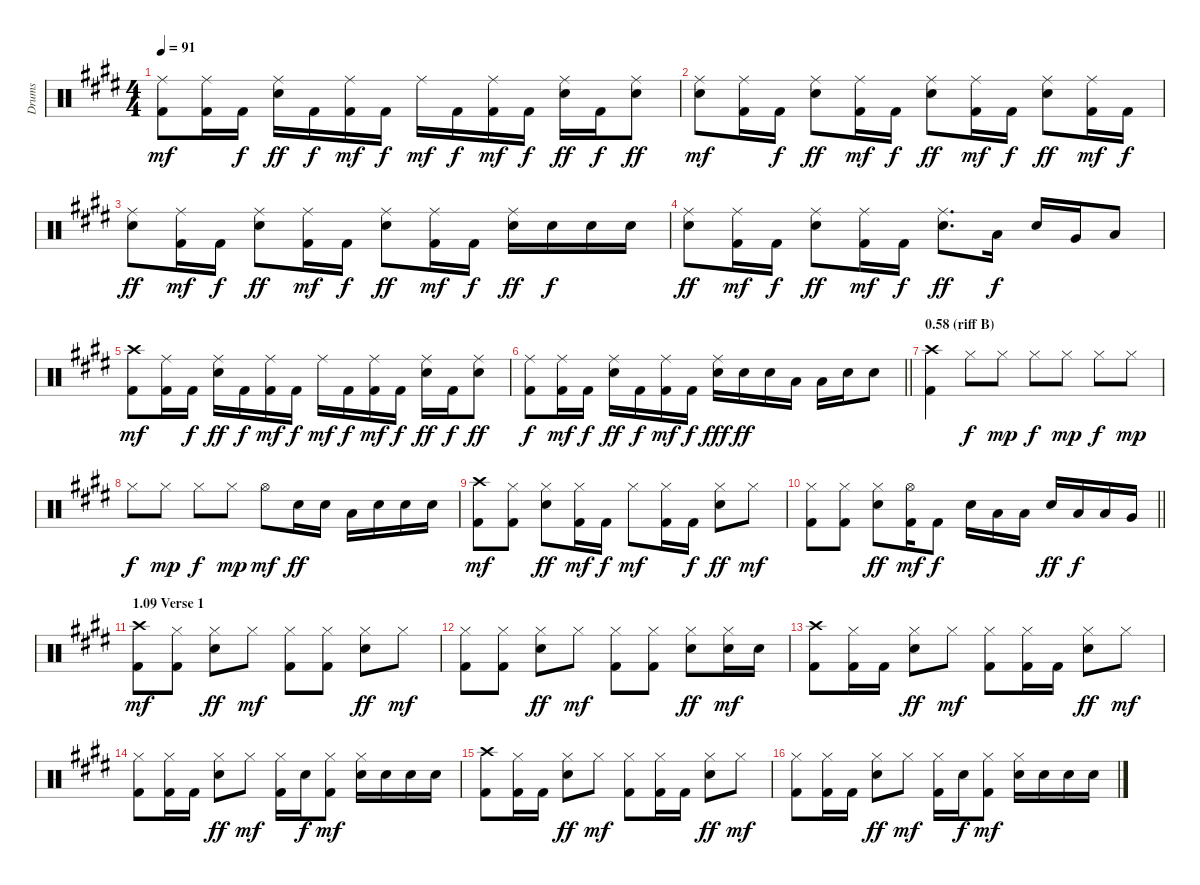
\track ("Drums" "Drums") {instrument percussion}
\staff {score}
\articulation defaults
\ts (4 4)
\tempo 91
\clef neutral
\ks e
("Ride (middle)" "Kick (hit) 2").8{dy mf} ("Ride (middle)" "Kick (hit) 2").16 "Kick (hit) 2".16{dy f} ("Ride (middle)" "Snare (hit) 2").16{dy ff} "Kick (hit) 2".16{dy f} ("Ride (middle)" "Kick (hit) 2").16{dy mf} "Kick (hit) 2".16{dy f} "Ride (middle)".16{dy mf} "Kick (hit) 2".16{dy f} ("Ride (middle)" "Kick (hit) 2").16{dy mf} "Kick (hit) 2".16{dy f} ("Ride (middle)" "Snare (hit) 2").16{dy ff} "Kick (hit) 2".16{dy f} ("Ride (middle)" "Snare (hit) 2").8{dy ff} |
("Ride (middle)" "Snare (hit) 2").8{dy mf} ("Ride (middle)" "Kick (hit) 2").16 "Kick (hit) 2".16{dy f} ("Ride (middle)" "Snare (hit) 2").8{dy ff} ("Ride (middle)" "Kick (hit) 2").16{dy mf} "Kick (hit) 2".16{dy f} ("Ride (middle)" "Snare (hit) 2").8{dy ff} ("Ride (middle)" "Kick (hit) 2").16{dy mf} "Kick (hit) 2".16{dy f} ("Ride (middle)" "Snare (hit) 2").8{dy ff} ("Ride (middle)" "Kick (hit) 2").16{dy mf} "Kick (hit) 2".16{dy f} |
("Ride (middle)" "Snare (hit) 2").8{dy ff} ("Ride (middle)" "Kick (hit) 2").16{dy mf} "Kick (hit) 2".16{dy f} ("Ride (middle)" "Snare (hit) 2").8{dy ff} ("Ride (middle)" "Kick (hit) 2").16{dy mf} "Kick (hit) 2".16{dy f} ("Ride (middle)" "Snare (hit) 2").8{dy ff} ("Ride (middle)" "Kick (hit) 2").16{dy mf} "Kick (hit) 2".16{dy f} ("Ride (middle)" "Snare (hit) 2").16{dy ff} "Snare (hit) 2".16{dy f} "Snare (hit) 2".16 "Snare (hit) 2".16 |
("Ride (middle)" "Snare (hit) 2").8{dy ff} ("Ride (middle)" "Kick (hit) 2").16{dy mf} "Kick (hit) 2".16{dy f} ("Ride (middle)" "Snare (hit) 2").8{dy ff} ("Ride (middle)" "Kick (hit) 2").16{dy mf} "Kick (hit) 2".16{dy f} ("Ride (middle)" "Snare (hit) 2").8{d dy ff} "Low Tom (hit)".16{dy f} "Snare (hit) 2".16 "Very Low Tom (hit)".16 "Low Floor Tom (hit)".8 |
("Crash high (hit)" "Kick (hit) 2").8{dy mf} ("Ride (middle)" "Kick (hit) 2").16 "Kick (hit) 2".16{dy f} ("Ride (middle)" "Snare (hit) 2").16{dy ff} "Kick (hit) 2".16{dy f} ("Ride (middle)" "Kick (hit) 2").16{dy mf} "Kick (hit) 2".16{dy f} "Ride (middle)".16{dy mf} "Kick (hit) 2".16{dy f} ("Ride (middle)" "Kick (hit) 2").16{dy mf} "Kick (hit) 2".16{dy f} ("Ride (middle)" "Snare (hit) 2").16{dy ff} "Kick (hit) 2".16{dy f} ("Ride (middle)" "Snare (hit) 2").8{dy ff} |
\barLineRight lightlight
("Ride (middle)" "Kick (hit) 2").8{dy f} ("Ride (middle)" "Kick (hit) 2").16{dy mf} "Kick (hit) 2".16{dy f} ("Ride (middle)" "Snare (hit) 2").16{dy ff} "Kick (hit) 2".16{dy f} ("Ride (middle)" "Kick (hit) 2").16{dy mf} "Kick (hit) 2".16{dy f} ("Ride (middle)" "Snare (hit) 2").16{dy fff} "Snare (hit) 2".16{dy ff} "Snare (hit) 2".16 "Low Tom (hit)".16 "Low Tom (hit)".16 "Snare (hit) 2".16 "Snare (hit) 2".8 |
\section ("" "0.58 (riff B)")
("Crash high (hit)" "Kick (hit) 2").4 "Hi-Hat (closed)".8{dy f} "Hi-Hat (closed)".8{dy mp} "Hi-Hat (closed)".8{dy f} "Hi-Hat (closed)".8{dy mp} "Hi-Hat (closed)".8{dy f} "Hi-Hat (closed)".8{dy mp} |
"Hi-Hat (closed)".8{dy f} "Hi-Hat (closed)".8{dy mp} "Hi-Hat (closed)".8{dy f} "Hi-Hat (closed)".8{dy mp} "Hi-Hat (open)".8{dy mf} "Snare (hit) 2".16{dy ff} "Snare (hit) 2".16 "Low Tom (hit)".16 "Snare (hit) 2".16 "Snare (hit) 2".16 "Snare (hit) 2".16 |
("Crash high (hit)" "Kick (hit) 2").8{dy mf} ("Hi-Hat (closed)" "Kick (hit) 2").8 ("Hi-Hat (closed)" "Snare (hit) 2").8{dy ff} ("Hi-Hat (closed)" "Kick (hit) 2").16{dy mf} "Kick (hit) 2".16{dy f} "Hi-Hat (closed)".8{dy mf} ("Hi-Hat (closed)" "Kick (hit) 2").16 "Kick (hit) 2".16{dy f} ("Hi-Hat (closed)" "Snare (hit) 2").8{dy ff} "Hi-Hat (closed)".8{dy mf} |
\barLineRight lightlight
("Hi-Hat (closed)" "Kick (hit) 2").8 ("Hi-Hat (closed)" "Kick (hit) 2").8 ("Hi-Hat (closed)" "Snare (hit) 2").8{dy ff} ("Hi-Hat (open)" "Kick (hit) 2").16{dy mf} "Kick (hit) 2".8{dy f} "Snare (hit) 2".16 "Low Tom (hit)".16 "Low Tom (hit)".16 "Snare (hit) 2".16{dy ff} "Low Tom (hit)".16{dy f} "Low Tom (hit)".16 "Very Low Tom (hit)".16 |
\section ("" "1.09 Verse 1")
("Crash high (hit)" "Kick (hit) 2").8{dy mf} ("Hi-Hat (closed)" "Kick (hit) 2").8 ("Hi-Hat (closed)" "Snare (hit) 2").8{dy ff} "Hi-Hat (closed)".8{dy mf} ("Hi-Hat (closed)" "Kick (hit) 2").8 ("Hi-Hat (closed)" "Kick (hit) 2").8 ("Hi-Hat (closed)" "Snare (hit) 2").8{dy ff} "Hi-Hat (closed)".8{dy mf} |
("Hi-Hat (closed)" "Kick (hit) 2").8 ("Hi-Hat (closed)" "Kick (hit) 2").8 ("Hi-Hat (closed)" "Snare (hit) 2").8{dy ff} "Hi-Hat (closed)".8{dy mf} ("Hi-Hat (closed)" "Kick (hit) 2").8 ("Hi-Hat (closed)" "Kick (hit) 2").8 ("Hi-Hat (closed)" "Snare (hit) 2").8{dy ff} ("Hi-Hat (closed)" "Snare (hit) 2").16{dy mf} "Snare (hit) 2".16 |
("Crash high (hit)" "Kick (hit) 2").8 ("Hi-Hat (closed)" "Kick (hit) 2").16 "Kick (hit) 2".16 ("Hi-Hat (closed)" "Snare (hit) 2").8{dy ff} "Hi-Hat (closed)".8{dy mf} ("Hi-Hat (closed)" "Kick (hit) 2").8 ("Hi-Hat (closed)" "Kick (hit) 2").16 "Kick (hit) 2".16 ("Hi-Hat (closed)" "Snare (hit) 2").8{dy ff} "Hi-Hat (closed)".8{dy mf} |
("Hi-Hat (closed)" "Kick (hit) 2").8 ("Hi-Hat (closed)" "Kick (hit) 2").16 "Kick (hit) 2".16 ("Hi-Hat (closed)" "Snare (hit) 2").8{dy ff} "Hi-Hat (closed)".8{dy mf} ("Hi-Hat (closed)" "Kick (hit) 2").16 "Snare (hit) 2".16{dy f} ("Hi-Hat (closed)" "Kick (hit) 2").8{dy mf} ("Hi-Hat (closed)" "Snare (hit) 2").16 "Snare (hit) 2".16 "Snare (hit) 2".16 "Snare (hit) 2".16 |
("Crash high (hit)" "Kick (hit) 2").8 ("Hi-Hat (closed)" "Kick (hit) 2").16 "Kick (hit) 2".16 ("Hi-Hat (closed)" "Snare (hit) 2").8{dy ff} "Hi-Hat (closed)".8{dy mf} ("Hi-Hat (closed)" "Kick (hit) 2").8 ("Hi-Hat (closed)" "Kick (hit) 2").16 "Kick (hit) 2".16 ("Hi-Hat (closed)" "Snare (hit) 2").8{dy ff} "Hi-Hat (closed)".8{dy mf} |
("Hi-Hat (closed)" "Kick (hit) 2").8 ("Hi-Hat (closed)" "Kick (hit) 2").16 "Kick (hit) 2".16 ("Hi-Hat (closed)" "Snare (hit) 2").8{dy ff} "Hi-Hat (closed)".8{dy mf} ("Hi-Hat (closed)" "Kick (hit) 2").16 "Snare (hit) 2".16{dy f} ("Hi-Hat (closed)" "Kick (hit) 2").8{dy mf} ("Hi-Hat (closed)" "Snare (hit) 2").16 "Snare (hit) 2".16 "Snare (hit) 2".16 "Snare (hit) 2".16
